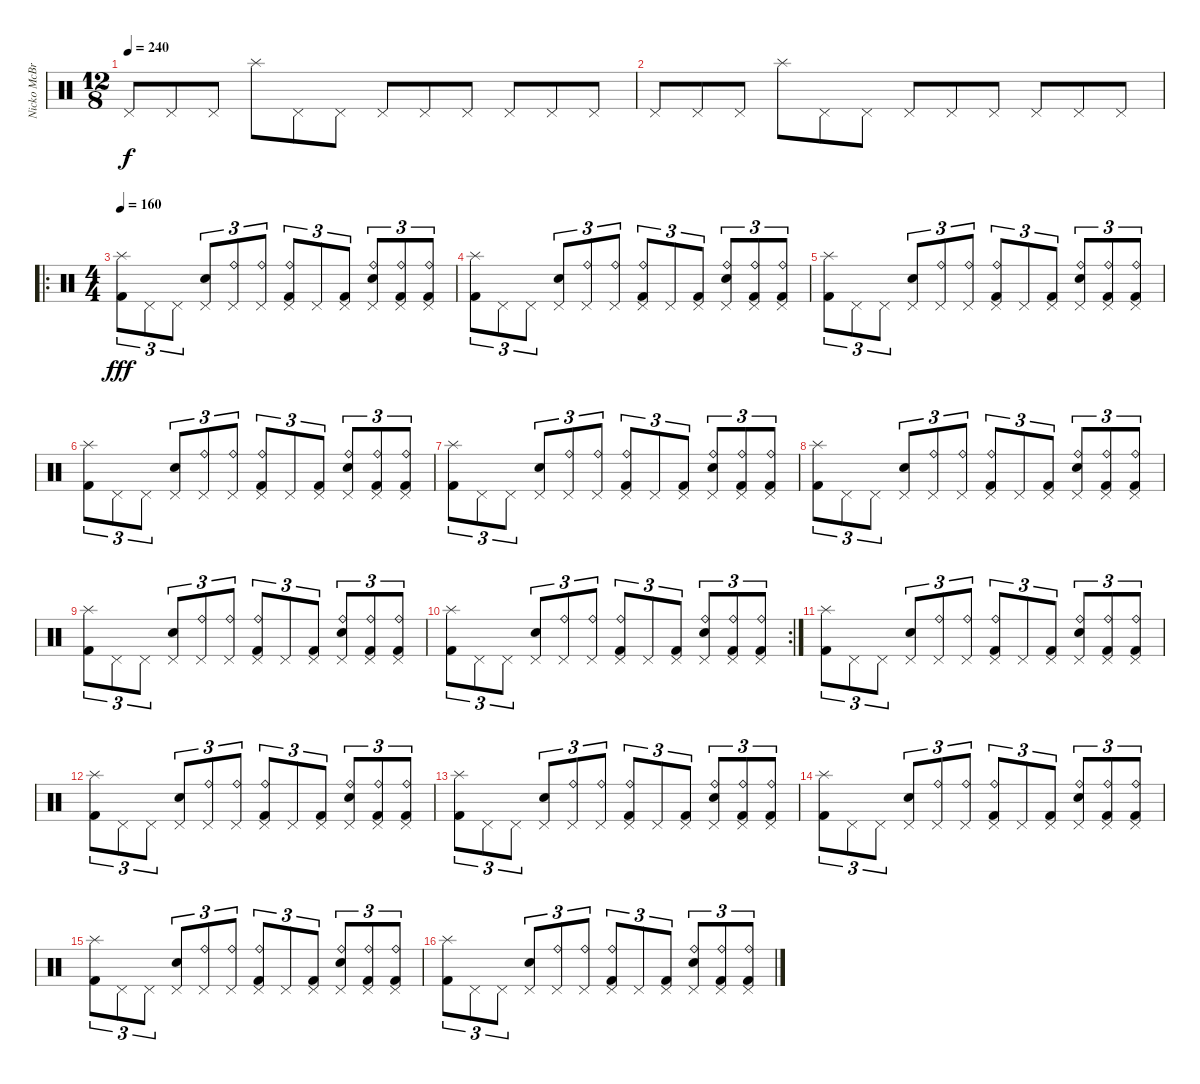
\track ("Nicko McBrian (Drums)" "Nicko McBr") {instrument percussion}
\staff {score}
\articulation defaults
\ts (12 8)
\tempo 240
\clef neutral
\ks c "Pedal Hi-Hat (hit)".8{dy f} "Pedal Hi-Hat (hit)".8 "Pedal Hi-Hat (hit)".8 "Splash (hit)".8 "Pedal Hi-Hat (hit)".8 "Pedal Hi-Hat (hit)".8 "Pedal Hi-Hat (hit)".8 "Pedal Hi-Hat (hit)".8 "Pedal Hi-Hat (hit)".8 "Pedal Hi-Hat (hit)".8 "Pedal Hi-Hat (hit)".8 "Pedal Hi-Hat (hit)".8
|
"Pedal Hi-Hat (hit)".8 "Pedal Hi-Hat (hit)".8 "Pedal Hi-Hat (hit)".8 "Splash (hit)".8 "Pedal Hi-Hat (hit)".8 "Pedal Hi-Hat (hit)".8 "Pedal Hi-Hat (hit)".8 "Pedal Hi-Hat (hit)".8 "Pedal Hi-Hat (hit)".8 "Pedal Hi-Hat (hit)".8 "Pedal Hi-Hat (hit)".8 "Pedal Hi-Hat (hit)".8 |
\ro
\ts (4 4)
\tempo 160
("Splash (hit)" "Kick (hit) 2").8{tu (3 2) dy fff} "Pedal Hi-Hat (hit)".8{tu (3 2)} "Pedal Hi-Hat (hit)".8{tu (3 2)} ("Pedal Hi-Hat (hit)" "Snare (hit) 2").8{tu (3 2)} ("Pedal Hi-Hat (hit)" "Ride (bell)").8{tu (3 2)} ("Pedal Hi-Hat (hit)" "Ride (bell)").8{tu (3 2)} ("Pedal Hi-Hat (hit)" "Kick (hit) 2" "Ride (bell)").8{tu (3 2)} "Pedal Hi-Hat (hit)".8{tu (3 2)} ("Pedal Hi-Hat (hit)" "Kick (hit) 2").8{tu (3 2)} ("Pedal Hi-Hat (hit)" "Snare (hit) 2" "Ride (bell)").8{tu (3 2)} ("Pedal Hi-Hat (hit)" "Kick (hit) 2" "Ride (bell)").8{tu (3 2)} ("Pedal Hi-Hat (hit)" "Kick (hit) 2" "Ride (bell)").8{tu (3 2)} |
("Splash (hit)" "Kick (hit) 2").8{tu (3 2)} "Pedal Hi-Hat (hit)".8{tu (3 2)} "Pedal Hi-Hat (hit)".8{tu (3 2)} ("Pedal Hi-Hat (hit)" "Snare (hit) 2").8{tu (3 2)} ("Pedal Hi-Hat (hit)" "Ride (bell)").8{tu (3 2)} ("Pedal Hi-Hat (hit)" "Ride (bell)").8{tu (3 2)} ("Pedal Hi-Hat (hit)" "Kick (hit) 2" "Ride (bell)").8{tu (3 2)} "Pedal Hi-Hat (hit)".8{tu (3 2)} ("Pedal Hi-Hat (hit)" "Kick (hit) 2").8{tu (3 2)} ("Pedal Hi-Hat (hit)" "Snare (hit) 2" "Ride (bell)").8{tu (3 2)} ("Pedal Hi-Hat (hit)" "Kick (hit) 2" "Ride (bell)").8{tu (3 2)} ("Pedal Hi-Hat (hit)" "Kick (hit) 2" "Ride (bell)").8{tu (3 2)} |
("Splash (hit)" "Kick (hit) 2").8{tu (3 2)} "Pedal Hi-Hat (hit)".8{tu (3 2)} "Pedal Hi-Hat (hit)".8{tu (3 2)} ("Pedal Hi-Hat (hit)" "Snare (hit) 2").8{tu (3 2)} ("Pedal Hi-Hat (hit)" "Ride (bell)").8{tu (3 2)} ("Pedal Hi-Hat (hit)" "Ride (bell)").8{tu (3 2)} ("Pedal Hi-Hat (hit)" "Kick (hit) 2" "Ride (bell)").8{tu (3 2)} "Pedal Hi-Hat (hit)".8{tu (3 2)} ("Pedal Hi-Hat (hit)" "Kick (hit) 2").8{tu (3 2)} ("Pedal Hi-Hat (hit)" "Snare (hit) 2" "Ride (bell)").8{tu (3 2)} ("Pedal Hi-Hat (hit)" "Kick (hit) 2" "Ride (bell)").8{tu (3 2)} ("Pedal Hi-Hat (hit)" "Kick (hit) 2" "Ride (bell)").8{tu (3 2)} |
("Splash (hit)" "Kick (hit) 2").8{tu (3 2)} "Pedal Hi-Hat (hit)".8{tu (3 2)} "Pedal Hi-Hat (hit)".8{tu (3 2)} ("Pedal Hi-Hat (hit)" "Snare (hit) 2").8{tu (3 2)} ("Pedal Hi-Hat (hit)" "Ride (bell)").8{tu (3 2)} ("Pedal Hi-Hat (hit)" "Ride (bell)").8{tu (3 2)} ("Pedal Hi-Hat (hit)" "Kick (hit) 2" "Ride (bell)").8{tu (3 2)} "Pedal Hi-Hat (hit)".8{tu (3 2)} ("Pedal Hi-Hat (hit)" "Kick (hit) 2").8{tu (3 2)} ("Pedal Hi-Hat (hit)" "Snare (hit) 2" "Ride (bell)").8{tu (3 2)} ("Pedal Hi-Hat (hit)" "Kick (hit) 2" "Ride (bell)").8{tu (3 2)} ("Pedal Hi-Hat (hit)" "Kick (hit) 2" "Ride (bell)").8{tu (3 2)} |
("Splash (hit)" "Kick (hit) 2").8{tu (3 2)} "Pedal Hi-Hat (hit)".8{tu (3 2)} "Pedal Hi-Hat (hit)".8{tu (3 2)} ("Pedal Hi-Hat (hit)" "Snare (hit) 2").8{tu (3 2)} ("Pedal Hi-Hat (hit)" "Ride (bell)").8{tu (3 2)} ("Pedal Hi-Hat (hit)" "Ride (bell)").8{tu (3 2)} ("Pedal Hi-Hat (hit)" "Kick (hit) 2" "Ride (bell)").8{tu (3 2)} "Pedal Hi-Hat (hit)".8{tu (3 2)} ("Pedal Hi-Hat (hit)" "Kick (hit) 2").8{tu (3 2)} ("Pedal Hi-Hat (hit)" "Snare (hit) 2" "Ride (bell)").8{tu (3 2)} ("Pedal Hi-Hat (hit)" "Kick (hit) 2" "Ride (bell)").8{tu (3 2)} ("Pedal Hi-Hat (hit)" "Kick (hit) 2" "Ride (bell)").8{tu (3 2)} |
("Splash (hit)" "Kick (hit) 2").8{tu (3 2)} "Pedal Hi-Hat (hit)".8{tu (3 2)} "Pedal Hi-Hat (hit)".8{tu (3 2)} ("Pedal Hi-Hat (hit)" "Snare (hit) 2").8{tu (3 2)} ("Pedal Hi-Hat (hit)" "Ride (bell)").8{tu (3 2)} ("Pedal Hi-Hat (hit)" "Ride (bell)").8{tu (3 2)} ("Pedal Hi-Hat (hit)" "Kick (hit) 2" "Ride (bell)").8{tu (3 2)} "Pedal Hi-Hat (hit)".8{tu (3 2)} ("Pedal Hi-Hat (hit)" "Kick (hit) 2").8{tu (3 2)} ("Pedal Hi-Hat (hit)" "Snare (hit) 2" "Ride (bell)").8{tu (3 2)} ("Pedal Hi-Hat (hit)" "Kick (hit) 2" "Ride (bell)").8{tu (3 2)} ("Pedal Hi-Hat (hit)" "Kick (hit) 2" "Ride (bell)").8{tu (3 2)} |
("Splash (hit)" "Kick (hit) 2").8{tu (3 2)} "Pedal Hi-Hat (hit)".8{tu (3 2)} "Pedal Hi-Hat (hit)".8{tu (3 2)} ("Pedal Hi-Hat (hit)" "Snare (hit) 2").8{tu (3 2)} ("Pedal Hi-Hat (hit)" "Ride (bell)").8{tu (3 2)} ("Pedal Hi-Hat (hit)" "Ride (bell)").8{tu (3 2)} ("Pedal Hi-Hat (hit)" "Kick (hit) 2" "Ride (bell)").8{tu (3 2)} "Pedal Hi-Hat (hit)".8{tu (3 2)} ("Pedal Hi-Hat (hit)" "Kick (hit) 2").8{tu (3 2)} ("Pedal Hi-Hat (hit)" "Snare (hit) 2" "Ride (bell)").8{tu (3 2)} ("Pedal Hi-Hat (hit)" "Kick (hit) 2" "Ride (bell)").8{tu (3 2)} ("Pedal Hi-Hat (hit)" "Kick (hit) 2" "Ride (bell)").8{tu (3 2)} |
\rc 2
("Splash (hit)" "Kick (hit) 2").8{tu (3 2)} "Pedal Hi-Hat (hit)".8{tu (3 2)} "Pedal Hi-Hat (hit)".8{tu (3 2)} ("Pedal Hi-Hat (hit)" "Snare (hit) 2").8{tu (3 2)} ("Pedal Hi-Hat (hit)" "Ride (bell)").8{tu (3 2)} ("Pedal Hi-Hat (hit)" "Ride (bell)").8{tu (3 2)} ("Pedal Hi-Hat (hit)" "Kick (hit) 2" "Ride (bell)").8{tu (3 2)} "Pedal Hi-Hat (hit)".8{tu (3 2)} ("Pedal Hi-Hat (hit)" "Kick (hit) 2").8{tu (3 2)} ("Pedal Hi-Hat (hit)" "Snare (hit) 2" "Ride (bell)").8{tu (3 2)} ("Pedal Hi-Hat (hit)" "Kick (hit) 2" "Ride (bell)").8{tu (3 2)} ("Pedal Hi-Hat (hit)" "Kick (hit) 2" "Ride (bell)").8{tu (3 2)} |
("Splash (hit)" "Kick (hit) 2").8{tu (3 2)} "Pedal Hi-Hat (hit)".8{tu (3 2)} "Pedal Hi-Hat (hit)".8{tu (3 2)} ("Pedal Hi-Hat (hit)" "Snare (hit) 2").8{tu (3 2)} ("Pedal Hi-Hat (hit)" "Ride (bell)").8{tu (3 2)} ("Pedal Hi-Hat (hit)" "Ride (bell)").8{tu (3 2)} ("Pedal Hi-Hat (hit)" "Kick (hit) 2" "Ride (bell)").8{tu (3 2)} "Pedal Hi-Hat (hit)".8{tu (3 2)} ("Pedal Hi-Hat (hit)" "Kick (hit) 2").8{tu (3 2)} ("Pedal Hi-Hat (hit)" "Snare (hit) 2" "Ride (bell)").8{tu (3 2)} ("Pedal Hi-Hat (hit)" "Kick (hit) 2" "Ride (bell)").8{tu (3 2)} ("Pedal Hi-Hat (hit)" "Kick (hit) 2" "Ride (bell)").8{tu (3 2)} |
("Splash (hit)" "Kick (hit) 2").8{tu (3 2)} "Pedal Hi-Hat (hit)".8{tu (3 2)} "Pedal Hi-Hat (hit)".8{tu (3 2)} ("Pedal Hi-Hat (hit)" "Snare (hit) 2").8{tu (3 2)} ("Pedal Hi-Hat (hit)" "Ride (bell)").8{tu (3 2)} ("Pedal Hi-Hat (hit)" "Ride (bell)").8{tu (3 2)} ("Pedal Hi-Hat (hit)" "Kick (hit) 2" "Ride (bell)").8{tu (3 2)} "Pedal Hi-Hat (hit)".8{tu (3 2)} ("Pedal Hi-Hat (hit)" "Kick (hit) 2").8{tu (3 2)} ("Pedal Hi-Hat (hit)" "Snare (hit) 2" "Ride (bell)").8{tu (3 2)} ("Pedal Hi-Hat (hit)" "Kick (hit) 2" "Ride (bell)").8{tu (3 2)} ("Pedal Hi-Hat (hit)" "Kick (hit) 2" "Ride (bell)").8{tu (3 2)} |
("Splash (hit)" "Kick (hit) 2").8{tu (3 2)} "Pedal Hi-Hat (hit)".8{tu (3 2)} "Pedal Hi-Hat (hit)".8{tu (3 2)} ("Pedal Hi-Hat (hit)" "Snare (hit) 2").8{tu (3 2)} ("Pedal Hi-Hat (hit)" "Ride (bell)").8{tu (3 2)} ("Pedal Hi-Hat (hit)" "Ride (bell)").8{tu (3 2)} ("Pedal Hi-Hat (hit)" "Kick (hit) 2" "Ride (bell)").8{tu (3 2)} "Pedal Hi-Hat (hit)".8{tu (3 2)} ("Pedal Hi-Hat (hit)" "Kick (hit) 2").8{tu (3 2)} ("Pedal Hi-Hat (hit)" "Snare (hit) 2" "Ride (bell)").8{tu (3 2)} ("Pedal Hi-Hat (hit)" "Kick (hit) 2" "Ride (bell)").8{tu (3 2)} ("Pedal Hi-Hat (hit)" "Kick (hit) 2" "Ride (bell)").8{tu (3 2)} |
("Splash (hit)" "Kick (hit) 2").8{tu (3 2)} "Pedal Hi-Hat (hit)".8{tu (3 2)} "Pedal Hi-Hat (hit)".8{tu (3 2)} ("Pedal Hi-Hat (hit)" "Snare (hit) 2").8{tu (3 2)} ("Pedal Hi-Hat (hit)" "Ride (bell)").8{tu (3 2)} ("Pedal Hi-Hat (hit)" "Ride (bell)").8{tu (3 2)} ("Pedal Hi-Hat (hit)" "Kick (hit) 2" "Ride (bell)").8{tu (3 2)} "Pedal Hi-Hat (hit)".8{tu (3 2)} ("Pedal Hi-Hat (hit)" "Kick (hit) 2").8{tu (3 2)} ("Pedal Hi-Hat (hit)" "Snare (hit) 2" "Ride (bell)").8{tu (3 2)} ("Pedal Hi-Hat (hit)" "Kick (hit) 2" "Ride (bell)").8{tu (3 2)} ("Pedal Hi-Hat (hit)" "Kick (hit) 2" "Ride (bell)").8{tu (3 2)} |
("Splash (hit)" "Kick (hit) 2").8{tu (3 2)} "Pedal Hi-Hat (hit)".8{tu (3 2)} "Pedal Hi-Hat (hit)".8{tu (3 2)} ("Pedal Hi-Hat (hit)" "Snare (hit) 2").8{tu (3 2)} ("Pedal Hi-Hat (hit)" "Ride (bell)").8{tu (3 2)} ("Pedal Hi-Hat (hit)" "Ride (bell)").8{tu (3 2)} ("Pedal Hi-Hat (hit)" "Kick (hit) 2" "Ride (bell)").8{tu (3 2)} "Pedal Hi-Hat (hit)".8{tu (3 2)} ("Pedal Hi-Hat (hit)" "Kick (hit) 2").8{tu (3 2)} ("Pedal Hi-Hat (hit)" "Snare (hit) 2" "Ride (bell)").8{tu (3 2)} ("Pedal Hi-Hat (hit)" "Kick (hit) 2" "Ride (bell)").8{tu (3 2)} ("Pedal Hi-Hat (hit)" "Kick (hit) 2" "Ride (bell)").8{tu (3 2)} |
("Splash (hit)" "Kick (hit) 2").8{tu (3 2)} "Pedal Hi-Hat (hit)".8{tu (3 2)} "Pedal Hi-Hat (hit)".8{tu (3 2)} ("Pedal Hi-Hat (hit)" "Snare (hit) 2").8{tu (3 2)} ("Pedal Hi-Hat (hit)" "Ride (bell)").8{tu (3 2)} ("Pedal Hi-Hat (hit)" "Ride (bell)").8{tu (3 2)} ("Pedal Hi-Hat (hit)" "Kick (hit) 2" "Ride (bell)").8{tu (3 2)} "Pedal Hi-Hat (hit)".8{tu (3 2)} ("Pedal Hi-Hat (hit)" "Kick (hit) 2").8{tu (3 2)} ("Pedal Hi-Hat (hit)" "Snare (hit) 2" "Ride (bell)").8{tu (3 2)} ("Pedal Hi-Hat (hit)" "Kick (hit) 2" "Ride (bell)").8{tu (3 2)} ("Pedal Hi-Hat (hit)" "Kick (hit) 2" "Ride (bell)").8{tu (3 2)}
